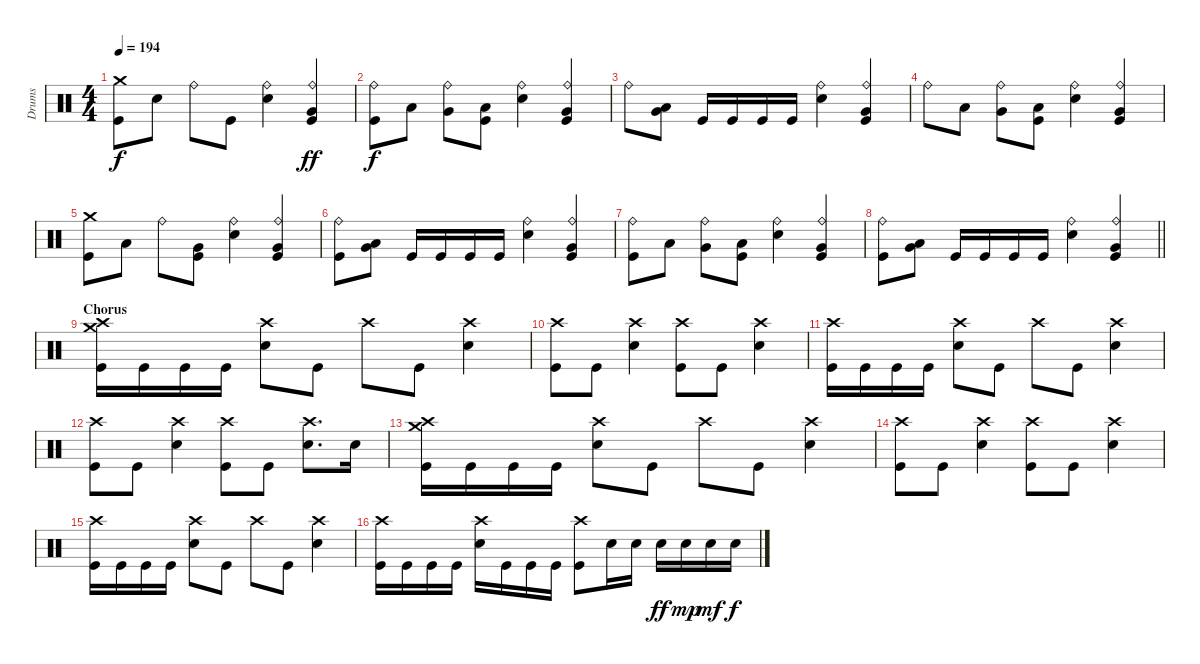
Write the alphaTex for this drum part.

\track ("Drums" "Drums") {instrument percussion}
\staff {score}
\articulation defaults
\ts (4 4)
\tempo 194
\clef neutral
\ks c
("Crash medium (hit)" "Kick (hit)").8{dy f} "Snare (hit) 2".8 "Ride (bell)".8 "Kick (hit)".8 ("Ride (bell)" "Snare (hit) 2").4 ("Ride (bell)" "Very Low Tom (hit)" "Kick (hit)").4{dy ff} |
("Ride (bell)" "Kick (hit)").8{dy f} "Low Tom (hit)".8 ("Ride (bell)" "Very Low Tom (hit)").8 ("Low Floor Tom (hit)" "Kick (hit)").8 ("Ride (bell)" "Snare (hit) 2").4 ("Ride (bell)" "Very Low Tom (hit)" "Kick (hit)").4 |
"Ride (bell)".8 ("Low Tom (hit)" "Very Low Tom (hit)").8 "Kick (hit)".16 "Kick (hit)".16 "Kick (hit)".16 "Kick (hit)".16 ("Ride (bell)" "Snare (hit) 2").4 ("Ride (bell)" "Very Low Tom (hit)" "Kick (hit)").4 |
"Ride (bell)".8 "Low Tom (hit)".8 ("Ride (bell)" "Very Low Tom (hit)").8 ("Low Floor Tom (hit)" "Kick (hit)").8 ("Ride (bell)" "Snare (hit) 2").4 ("Ride (bell)" "Very Low Tom (hit)" "Kick (hit)").4 |
("Crash medium (hit)" "Kick (hit)").8 "Low Tom (hit)".8 "Ride (bell)".8 ("Very Low Tom (hit)" "Kick (hit)").8 ("Ride (bell)" "Snare (hit) 2").4 ("Ride (bell)" "Very Low Tom (hit)" "Kick (hit)").4 |
("Ride (bell)" "Kick (hit)").8 ("Low Tom (hit)" "Very Low Tom (hit)").8 "Kick (hit)".16 "Kick (hit)".16 "Kick (hit)".16 "Kick (hit)".16 ("Ride (bell)" "Snare (hit) 2").4 ("Ride (bell)" "Very Low Tom (hit)" "Kick (hit)").4 |
("Ride (bell)" "Kick (hit)").8 "Low Tom (hit)".8 ("Ride (bell)" "Very Low Tom (hit)").8 ("Low Floor Tom (hit)" "Kick (hit)").8 ("Ride (bell)" "Snare (hit) 2").4 ("Ride (bell)" "Very Low Tom (hit)" "Kick (hit)").4 |
\barLineRight lightlight
("Ride (bell)" "Kick (hit)").8 ("Low Tom (hit)" "Very Low Tom (hit)").8 "Kick (hit)".16 "Kick (hit)".16 "Kick (hit)".16 "Kick (hit)".16 ("Ride (bell)" "Snare (hit) 2").4 ("Ride (bell)" "Very Low Tom (hit)" "Kick (hit)").4 |
\section ("" "Chorus")
("Crash high (hit)" "Crash medium (hit)" "Kick (hit)").16 "Kick (hit)".16 "Kick (hit)".16 "Kick (hit)".16 ("Crash high (hit)" "Snare (hit) 2").8 "Kick (hit)".8 "Crash high (hit)".8 "Kick (hit)".8 ("Crash high (hit)" "Snare (hit) 2").4 |
("Crash high (hit)" "Kick (hit)").8 "Kick (hit)".8 ("Crash high (hit)" "Snare (hit) 2").4 ("Crash high (hit)" "Kick (hit)").8 "Kick (hit)".8 ("Crash high (hit)" "Snare (hit) 2").4 |
("Crash high (hit)" "Kick (hit)").16 "Kick (hit)".16 "Kick (hit)".16 "Kick (hit)".16 ("Crash high (hit)" "Snare (hit) 2").8 "Kick (hit)".8 "Crash high (hit)".8 "Kick (hit)".8 ("Crash high (hit)" "Snare (hit) 2").4 |
("Crash high (hit)" "Kick (hit)").8 "Kick (hit)".8 ("Crash high (hit)" "Snare (hit) 2").4 ("Crash high (hit)" "Kick (hit)").8 "Kick (hit)".8 ("Crash high (hit)" "Snare (hit) 2").8{d} "Snare (hit) 2".16 |
("Crash high (hit)" "Crash medium (hit)" "Kick (hit)").16 "Kick (hit)".16 "Kick (hit)".16 "Kick (hit)".16 ("Crash high (hit)" "Snare (hit) 2").8 "Kick (hit)".8 "Crash high (hit)".8 "Kick (hit)".8 ("Crash high (hit)" "Snare (hit) 2").4 |
("Crash high (hit)" "Kick (hit)").8 "Kick (hit)".8 ("Crash high (hit)" "Snare (hit) 2").4 ("Crash high (hit)" "Kick (hit)").8 "Kick (hit)".8 ("Crash high (hit)" "Snare (hit) 2").4 |
("Crash high (hit)" "Kick (hit)").16 "Kick (hit)".16 "Kick (hit)".16 "Kick (hit)".16 ("Crash high (hit)" "Snare (hit) 2").8 "Kick (hit)".8 "Crash high (hit)".8 "Kick (hit)".8 ("Crash high (hit)" "Snare (hit) 2").4 |
("Crash high (hit)" "Kick (hit)").16 "Kick (hit)".16 "Kick (hit)".16 "Kick (hit)".16 ("Crash high (hit)" "Snare (hit) 2").16 "Kick (hit)".16 "Kick (hit)".16 "Kick (hit)".16 ("Crash high (hit)" "Kick (hit)").8 "Snare (hit) 2".16 "Snare (hit) 2".16 "Snare (hit) 2".16{dy ff} "Snare (hit) 2".16{dy mp} "Snare (hit) 2".16{dy mf} "Snare (hit) 2".16{dy f}
